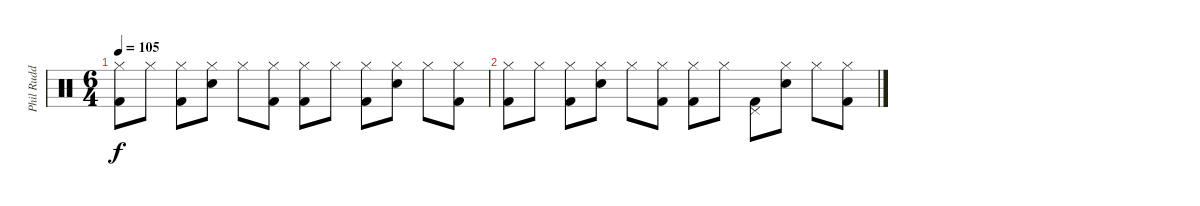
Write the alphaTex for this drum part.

\track ("Phil Rudd" "Phil Rudd") {instrument percussion}
\staff {score}
\articulation defaults
\ts (6 4)
\tempo 105
\clef neutral
\ks c
("Hi-Hat (closed)" "Kick (hit) 2").8{dy f volume 5} "Hi-Hat (closed)".8 ("Hi-Hat (closed)" "Kick (hit) 2").8 ("Hi-Hat (closed)" "Electric Snare (hit)").8 "Hi-Hat (closed)".8 ("Hi-Hat (closed)" "Kick (hit) 2").8 ("Hi-Hat (closed)" "Kick (hit) 2").8 "Hi-Hat (closed)".8 ("Hi-Hat (closed)" "Kick (hit) 2").8 ("Hi-Hat (closed)" "Electric Snare (hit)").8 "Hi-Hat (closed)".8 ("Hi-Hat (closed)" "Kick (hit) 2").8 |
("Hi-Hat (closed)" "Kick (hit) 2").8{volume 3} "Hi-Hat (closed)".8 ("Hi-Hat (closed)" "Kick (hit) 2").8 ("Hi-Hat (closed)" "Electric Snare (hit)").8 "Hi-Hat (closed)".8 ("Hi-Hat (closed)" "Kick (hit) 2").8 ("Hi-Hat (closed)" "Kick (hit) 2").8 "Hi-Hat (closed)".8 ("Pedal Hi-Hat (hit)" "Kick (hit) 2").8 ("Hi-Hat (closed)" "Electric Snare (hit)").8 "Hi-Hat (closed)".8 ("Hi-Hat (closed)" "Kick (hit) 2").8
